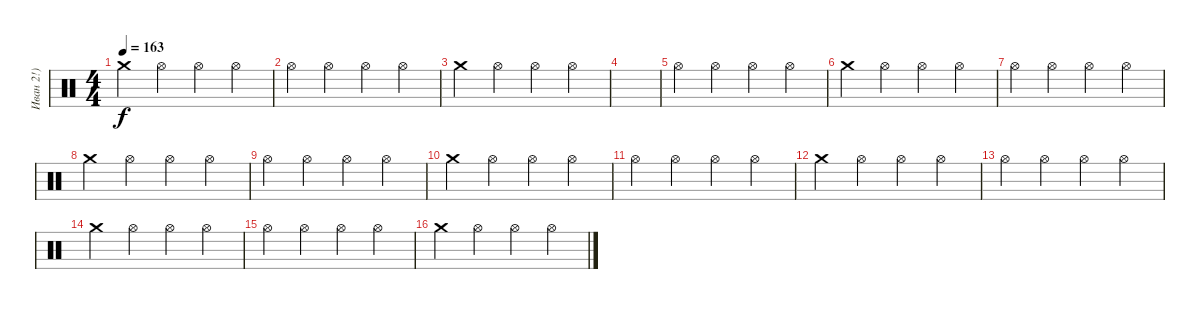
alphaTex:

\track ("Иван 2!)" "Иван 2!)") {instrument percussion}
\staff {score}
\articulation defaults
\ts (4 4)
\tempo 163
\clef neutral
\ks c "Crash medium (hit)".4{dy f} "Hi-Hat (open)".4 "Hi-Hat (open)".4 "Hi-Hat (open)".4
|
"Hi-Hat (open)".4 "Hi-Hat (open)".4 "Hi-Hat (open)".4 "Hi-Hat (open)".4 |
"Crash medium (hit)".4 "Hi-Hat (open)".4 "Hi-Hat (open)".4 "Hi-Hat (open)".4 |
|
"Hi-Hat (open)".4 "Hi-Hat (open)".4 "Hi-Hat (open)".4 "Hi-Hat (open)".4 |
"Crash medium (hit)".4 "Hi-Hat (open)".4 "Hi-Hat (open)".4 "Hi-Hat (open)".4 |
"Hi-Hat (open)".4 "Hi-Hat (open)".4 "Hi-Hat (open)".4 "Hi-Hat (open)".4 |
"Crash medium (hit)".4 "Hi-Hat (open)".4 "Hi-Hat (open)".4 "Hi-Hat (open)".4 |
"Hi-Hat (open)".4 "Hi-Hat (open)".4 "Hi-Hat (open)".4 "Hi-Hat (open)".4 |
"Crash medium (hit)".4 "Hi-Hat (open)".4 "Hi-Hat (open)".4 "Hi-Hat (open)".4 |
"Hi-Hat (open)".4 "Hi-Hat (open)".4 "Hi-Hat (open)".4 "Hi-Hat (open)".4 |
"Crash medium (hit)".4 "Hi-Hat (open)".4 "Hi-Hat (open)".4 "Hi-Hat (open)".4 |
"Hi-Hat (open)".4 "Hi-Hat (open)".4 "Hi-Hat (open)".4 "Hi-Hat (open)".4 |
"Crash medium (hit)".4 "Hi-Hat (open)".4 "Hi-Hat (open)".4 "Hi-Hat (open)".4 |
"Hi-Hat (open)".4 "Hi-Hat (open)".4 "Hi-Hat (open)".4 "Hi-Hat (open)".4 |
"Crash medium (hit)".4 "Hi-Hat (open)".4 "Hi-Hat (open)".4 "Hi-Hat (open)".4
